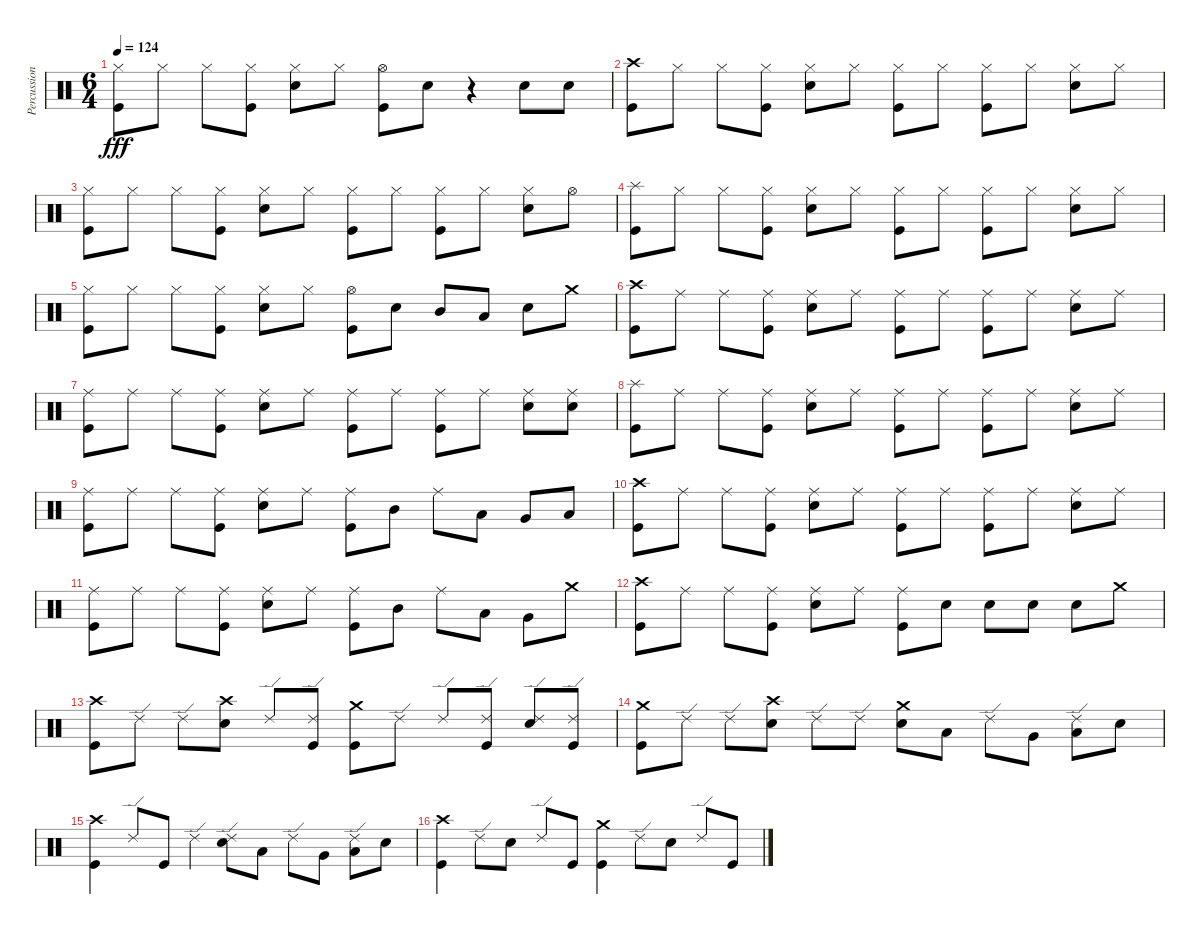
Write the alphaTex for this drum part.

\track ("Percussion" "Percussion") {instrument percussion}
\staff {score}
\articulation defaults
\ts (6 4)
\tempo 124
\clef neutral
\ks c
("Hi-Hat (closed)" "Kick (hit)").8{dy fff} "Hi-Hat (closed)".8 "Hi-Hat (closed)".8 ("Hi-Hat (closed)" "Kick (hit)").8 ("Hi-Hat (closed)" "Snare (hit) 2").8 "Hi-Hat (closed)".8 ("Hi-Hat (open)" "Kick (hit)").8 "Snare (hit) 2".8 r.4 "Snare (hit) 2".8 "Snare (hit) 2".8 |
("Crash high (hit)" "Kick (hit)").8 "Hi-Hat (closed)".8 "Hi-Hat (closed)".8 ("Hi-Hat (closed)" "Kick (hit)").8 ("Hi-Hat (closed)" "Snare (hit) 2").8 "Hi-Hat (closed)".8 ("Hi-Hat (closed)" "Kick (hit)").8 "Hi-Hat (closed)".8 ("Hi-Hat (closed)" "Kick (hit)").8 "Hi-Hat (closed)".8 ("Hi-Hat (closed)" "Snare (hit) 2").8 "Hi-Hat (closed)".8 |
("Hi-Hat (closed)" "Kick (hit)").8 "Hi-Hat (closed)".8 "Hi-Hat (closed)".8 ("Hi-Hat (closed)" "Kick (hit)").8 ("Hi-Hat (closed)" "Snare (hit) 2").8 "Hi-Hat (closed)".8 ("Hi-Hat (closed)" "Kick (hit)").8 "Hi-Hat (closed)".8 ("Hi-Hat (closed)" "Kick (hit)").8 "Hi-Hat (closed)".8 ("Hi-Hat (closed)" "Snare (hit) 2").8 "Hi-Hat (open)".8 |
("Splash (hit)" "Kick (hit)").8 "Hi-Hat (closed)".8 "Hi-Hat (closed)".8 ("Hi-Hat (closed)" "Kick (hit)").8 ("Hi-Hat (closed)" "Snare (hit) 2").8 "Hi-Hat (closed)".8 ("Hi-Hat (closed)" "Kick (hit)").8 "Hi-Hat (closed)".8 ("Hi-Hat (closed)" "Kick (hit)").8 "Hi-Hat (closed)".8 ("Hi-Hat (closed)" "Snare (hit) 2").8 "Hi-Hat (closed)".8 |
("Hi-Hat (closed)" "Kick (hit)").8 "Hi-Hat (closed)".8 "Hi-Hat (closed)".8 ("Hi-Hat (closed)" "Kick (hit)").8 ("Hi-Hat (closed)" "Snare (hit) 2").8 "Hi-Hat (closed)".8 ("Hi-Hat (open)" "Kick (hit)").8 "Snare (hit) 2".8 "Mid Tom (hit)".8 "Low Tom (hit)".8 "Snare (hit) 2".8 "Crash medium (hit)".8 |
("Crash high (hit)" "Kick (hit)").8 "Ride (middle)".8 "Ride (middle)".8 ("Ride (middle)" "Kick (hit)").8 ("Ride (middle)" "Snare (hit) 2").8 "Ride (middle)".8 ("Ride (middle)" "Kick (hit)").8 "Ride (middle)".8 ("Ride (middle)" "Kick (hit)").8 "Ride (middle)".8 ("Ride (middle)" "Snare (hit) 2").8 "Ride (middle)".8 |
("Ride (middle)" "Kick (hit)").8 "Ride (middle)".8 "Ride (middle)".8 ("Ride (middle)" "Kick (hit)").8 ("Ride (middle)" "Snare (hit) 2").8 "Ride (middle)".8 ("Ride (middle)" "Kick (hit)").8 "Ride (middle)".8 ("Ride (middle)" "Kick (hit)").8 "Ride (middle)".8 ("Ride (middle)" "Snare (hit) 2").8 ("Ride (middle)" "Snare (hit) 2").8 |
("Splash (hit)" "Kick (hit)").8 "Ride (middle)".8 "Ride (middle)".8 ("Ride (middle)" "Kick (hit)").8 ("Ride (middle)" "Snare (hit) 2").8 "Ride (middle)".8 ("Ride (middle)" "Kick (hit)").8 "Ride (middle)".8 ("Ride (middle)" "Kick (hit)").8 "Ride (middle)".8 ("Ride (middle)" "Snare (hit) 2").8 "Ride (middle)".8 |
("Ride (middle)" "Kick (hit)").8 "Ride (middle)".8 "Ride (middle)".8 ("Ride (middle)" "Kick (hit)").8 ("Ride (middle)" "Snare (hit) 2").8 "Ride (middle)".8 ("Ride (middle)" "Kick (hit)").8 "Mid Tom (hit)".8 "Ride (middle)".8 "Low Tom (hit)".8 "Very Low Tom (hit)".8 "Low Floor Tom (hit)".8 |
("Crash high (hit)" "Kick (hit)").8 "Ride (middle)".8 "Ride (middle)".8 ("Ride (middle)" "Kick (hit)").8 ("Ride (middle)" "Snare (hit) 2").8 "Ride (middle)".8 ("Ride (middle)" "Kick (hit)").8 "Ride (middle)".8 ("Ride (middle)" "Kick (hit)").8 "Ride (middle)".8 ("Ride (middle)" "Snare (hit) 2").8 "Ride (middle)".8 |
("Ride (middle)" "Kick (hit)").8 "Ride (middle)".8 "Ride (middle)".8 ("Ride (middle)" "Kick (hit)").8 ("Ride (middle)" "Snare (hit) 2").8 "Ride (middle)".8 ("Ride (middle)" "Kick (hit)").8 "Mid Tom (hit)".8 "Ride (middle)".8 "Low Tom (hit)".8 "Very Low Tom (hit)".8 "Crash medium (hit)".8 |
("Crash high (hit)" "Kick (hit)").8 "Ride (middle)".8 "Ride (middle)".8 ("Ride (middle)" "Kick (hit)").8 ("Ride (middle)" "Snare (hit) 2").8 "Ride (middle)".8 ("Ride (middle)" "Kick (hit)").8 "Snare (hit) 2".8 "Snare (hit) 2".8 "Snare (hit) 2".8 "Snare (hit) 2".8 "Crash medium (hit)".8 |
("Crash high (hit)" "Kick (hit)").8 "Ride (edge) 2".8 "Ride (edge) 2".8 ("Crash high (hit)" "Snare (hit) 2").8 "Ride (edge) 2".8 ("Ride (edge) 2" "Kick (hit)").8 ("Crash medium (hit)" "Kick (hit)").8 "Ride (edge) 2".8 "Ride (edge) 2".8 ("Ride (edge) 2" "Kick (hit)").8 ("Ride (edge) 2" "Snare (hit) 2").8 ("Ride (edge) 2" "Kick (hit)").8 |
("Crash medium (hit)" "Kick (hit)").8 "Ride (edge) 2".8 "Ride (edge) 2".8 ("Crash high (hit)" "Snare (hit) 2").8 "Ride (edge) 2".8 "Ride (edge) 2".8 ("Crash medium (hit)" "Snare (hit) 2").8 "Low Tom (hit)".8 "Ride (edge) 2".8 "Very Low Tom (hit)".8 ("Ride (edge) 2" "Low Floor Tom (hit)").8 "Snare (hit) 2".8 |
("Crash high (hit)" "Kick (hit)").4 "Ride (edge) 2".8 "Kick (hit)".8 "Ride (edge) 2".4 ("Ride (edge) 2" "Snare (hit) 2").8 "Low Tom (hit)".8 "Ride (edge) 2".8 "Very Low Tom (hit)".8 ("Ride (edge) 2" "Low Floor Tom (hit)").8 "Snare (hit) 2".8 |
("Crash high (hit)" "Kick (hit)").4 "Ride (edge) 2".8 "Snare (hit) 2".8 "Ride (edge) 2".8 "Kick (hit)".8 ("Crash medium (hit)" "Kick (hit)").4 "Ride (edge) 2".8 "Snare (hit) 2".8 "Ride (edge) 2".8 "Kick (hit)".8
